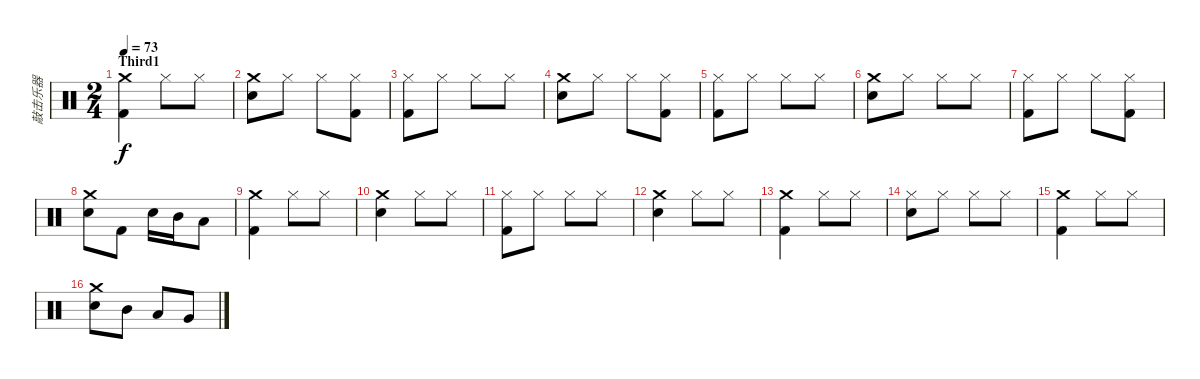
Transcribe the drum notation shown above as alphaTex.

\track ("敲击乐器" "敲击乐器") {instrument percussion}
\staff {score}
\articulation defaults
\ts (2 4)
\section ("" "Third1")
\tempo 73
\clef neutral
\ks c
("Crash medium (hit)" "Kick (hit) 2").4{dy f} "Hi-Hat (closed)".8 "Hi-Hat (closed)".8 |
("Crash medium (hit)" "Electric Snare (hit)").8 "Hi-Hat (closed)".8 "Hi-Hat (closed)".8 ("Hi-Hat (closed)" "Kick (hit) 2").8 |
("Hi-Hat (closed)" "Kick (hit) 2").8 "Hi-Hat (closed)".8 "Hi-Hat (closed)".8 "Hi-Hat (closed)".8 |
("Crash medium (hit)" "Electric Snare (hit)").8 "Hi-Hat (closed)".8 "Hi-Hat (closed)".8 ("Hi-Hat (closed)" "Kick (hit) 2").8 |
("Hi-Hat (closed)" "Kick (hit) 2").8 "Hi-Hat (closed)".8 "Hi-Hat (closed)".8 "Hi-Hat (closed)".8 |
("Crash medium (hit)" "Electric Snare (hit)").8 "Hi-Hat (closed)".8 "Hi-Hat (closed)".8 "Hi-Hat (closed)".8 |
("Hi-Hat (closed)" "Kick (hit) 2").8 "Hi-Hat (closed)".8 "Hi-Hat (closed)".8 ("Hi-Hat (closed)" "Kick (hit) 2").8 |
("Crash medium (hit)" "Electric Snare (hit)").8 "Kick (hit) 2".8 "Electric Snare (hit)".16 "Mid Tom (hit)".16 "Low Tom (hit)".8 |
("Crash medium (hit)" "Kick (hit) 2").4 "Hi-Hat (closed)".8 "Hi-Hat (closed)".8 |
("Crash medium (hit)" "Electric Snare (hit)").4 "Hi-Hat (closed)".8 "Hi-Hat (closed)".8 |
("Hi-Hat (closed)" "Kick (hit) 2").8 "Hi-Hat (closed)".8 "Hi-Hat (closed)".8 "Hi-Hat (closed)".8 |
("Crash medium (hit)" "Electric Snare (hit)").4 "Hi-Hat (closed)".8 "Hi-Hat (closed)".8 |
("Crash medium (hit)" "Kick (hit) 2").4 "Hi-Hat (closed)".8 "Hi-Hat (closed)".8 |
("Hi-Hat (closed)" "Electric Snare (hit)").8 "Hi-Hat (closed)".8 "Hi-Hat (closed)".8 "Hi-Hat (closed)".8 |
("Crash medium (hit)" "Kick (hit) 2").4 "Hi-Hat (closed)".8 "Hi-Hat (closed)".8 |
("Crash medium (hit)" "Electric Snare (hit)").8 "Mid Tom (hit)".8 "Low Tom (hit)".8 "Very Low Tom (hit)".8
